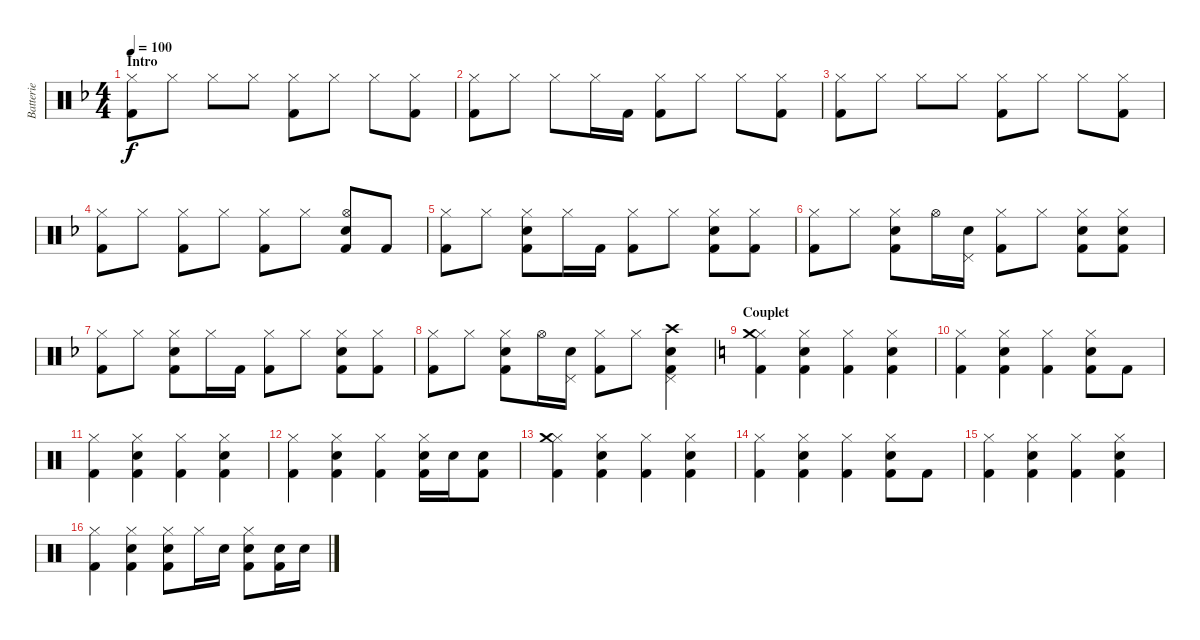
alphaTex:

\track ("Batterie" "Batterie") {instrument percussion}
\staff {score}
\articulation defaults
\ts (4 4)
\section ("" "Intro")
\tempo 100
\clef neutral
\ks f
("Hi-Hat (closed)" "Kick (hit) 2").8{dy f} "Hi-Hat (closed)".8 "Hi-Hat (closed)".8 "Hi-Hat (closed)".8 ("Hi-Hat (closed)" "Kick (hit) 2").8 "Hi-Hat (closed)".8 "Hi-Hat (closed)".8 ("Hi-Hat (closed)" "Kick (hit) 2").8 |
("Hi-Hat (closed)" "Kick (hit) 2").8 "Hi-Hat (closed)".8 "Hi-Hat (closed)".8 "Hi-Hat (closed)".16 "Kick (hit) 2".16 ("Hi-Hat (closed)" "Kick (hit) 2").8 "Hi-Hat (closed)".8 "Hi-Hat (closed)".8 ("Hi-Hat (closed)" "Kick (hit) 2").8 |
("Hi-Hat (closed)" "Kick (hit) 2").8 "Hi-Hat (closed)".8 "Hi-Hat (closed)".8 "Hi-Hat (closed)".8 ("Hi-Hat (closed)" "Kick (hit) 2").8 "Hi-Hat (closed)".8 "Hi-Hat (closed)".8 ("Hi-Hat (closed)" "Kick (hit) 2").8 |
("Hi-Hat (closed)" "Kick (hit) 2").8 "Hi-Hat (closed)".8 ("Hi-Hat (closed)" "Kick (hit) 2").8 "Hi-Hat (closed)".8 ("Hi-Hat (closed)" "Kick (hit) 2").8 "Hi-Hat (closed)".8 ("Hi-Hat (open)" "Snare (hit) 2" "Kick (hit) 2").8 "Kick (hit) 2".8 |
("Hi-Hat (closed)" "Kick (hit) 2").8 "Hi-Hat (closed)".8 ("Hi-Hat (closed)" "Snare (hit) 2" "Kick (hit) 2").8 "Hi-Hat (closed)".16 "Kick (hit) 2".16 ("Hi-Hat (closed)" "Kick (hit) 2").8 "Hi-Hat (closed)".8 ("Hi-Hat (closed)" "Snare (hit) 2" "Kick (hit) 2").8 ("Hi-Hat (closed)" "Kick (hit) 2").8 |
("Hi-Hat (closed)" "Kick (hit) 2").8 "Hi-Hat (closed)".8 ("Hi-Hat (closed)" "Snare (hit) 2" "Kick (hit) 2").8 "Hi-Hat (open)".16 ("Pedal Hi-Hat (hit)" "Snare (hit) 2").16 ("Hi-Hat (closed)" "Kick (hit) 2").8 "Hi-Hat (closed)".8 ("Hi-Hat (closed)" "Snare (hit) 2" "Kick (hit) 2").8 ("Hi-Hat (closed)" "Snare (hit) 2" "Kick (hit) 2").8 |
("Hi-Hat (closed)" "Kick (hit) 2").8 "Hi-Hat (closed)".8 ("Hi-Hat (closed)" "Snare (hit) 2" "Kick (hit) 2").8 "Hi-Hat (closed)".16 "Kick (hit) 2".16 ("Hi-Hat (closed)" "Kick (hit) 2").8 "Hi-Hat (closed)".8 ("Hi-Hat (closed)" "Snare (hit) 2" "Kick (hit) 2").8 ("Hi-Hat (closed)" "Kick (hit) 2").8 |
("Hi-Hat (closed)" "Kick (hit) 2").8 "Hi-Hat (closed)".8 ("Hi-Hat (closed)" "Snare (hit) 2" "Kick (hit) 2").8 "Hi-Hat (open)".16 ("Pedal Hi-Hat (hit)" "Snare (hit) 2").16 ("Hi-Hat (closed)" "Kick (hit) 2").8 "Hi-Hat (closed)".8 ("Pedal Hi-Hat (hit)" "Crash high (hit)" "Snare (hit) 2" "Kick (hit) 2").4 |
\section ("" "Couplet")
\ks c
("Hi-Hat (closed)" "Crash medium (hit)" "Kick (hit) 2").4 ("Hi-Hat (closed)" "Snare (hit) 2" "Kick (hit) 2").4 ("Hi-Hat (closed)" "Kick (hit) 2").4 ("Hi-Hat (closed)" "Snare (hit) 2" "Kick (hit) 2").4 |
("Hi-Hat (closed)" "Kick (hit) 2").4 ("Hi-Hat (closed)" "Snare (hit) 2" "Kick (hit) 2").4 ("Hi-Hat (closed)" "Kick (hit) 2").4 ("Hi-Hat (closed)" "Snare (hit) 2" "Kick (hit) 2").8 "Kick (hit) 2".8 |
("Hi-Hat (closed)" "Kick (hit) 2").4 ("Hi-Hat (closed)" "Snare (hit) 2" "Kick (hit) 2").4 ("Hi-Hat (closed)" "Kick (hit) 2").4 ("Hi-Hat (closed)" "Snare (hit) 2" "Kick (hit) 2").4 |
("Hi-Hat (closed)" "Kick (hit) 2").4 ("Hi-Hat (closed)" "Snare (hit) 2" "Kick (hit) 2").4 ("Hi-Hat (closed)" "Kick (hit) 2").4 ("Hi-Hat (closed)" "Snare (hit) 2" "Kick (hit) 2").16 "Snare (hit) 2".16 ("Snare (hit) 2" "Kick (hit) 2").8 |
("Hi-Hat (closed)" "Crash medium (hit)" "Kick (hit) 2").4 ("Hi-Hat (closed)" "Snare (hit) 2" "Kick (hit) 2").4 ("Hi-Hat (closed)" "Kick (hit) 2").4 ("Hi-Hat (closed)" "Snare (hit) 2" "Kick (hit) 2").4 |
("Hi-Hat (closed)" "Kick (hit) 2").4 ("Hi-Hat (closed)" "Snare (hit) 2" "Kick (hit) 2").4 ("Hi-Hat (closed)" "Kick (hit) 2").4 ("Hi-Hat (closed)" "Snare (hit) 2" "Kick (hit) 2").8 "Kick (hit) 2".8 |
("Hi-Hat (closed)" "Kick (hit) 2").4 ("Hi-Hat (closed)" "Snare (hit) 2" "Kick (hit) 2").4 ("Hi-Hat (closed)" "Kick (hit) 2").4 ("Hi-Hat (closed)" "Snare (hit) 2" "Kick (hit) 2").4 |
("Hi-Hat (closed)" "Kick (hit) 2").4 ("Hi-Hat (closed)" "Snare (hit) 2" "Kick (hit) 2").4 ("Hi-Hat (closed)" "Snare (hit) 2" "Kick (hit) 2").8 "Hi-Hat (closed)".16 "Snare (hit) 2".16 ("Hi-Hat (closed)" "Snare (hit) 2" "Kick (hit) 2").8 ("Snare (hit) 2" "Kick (hit) 2").16 "Snare (hit) 2".16
